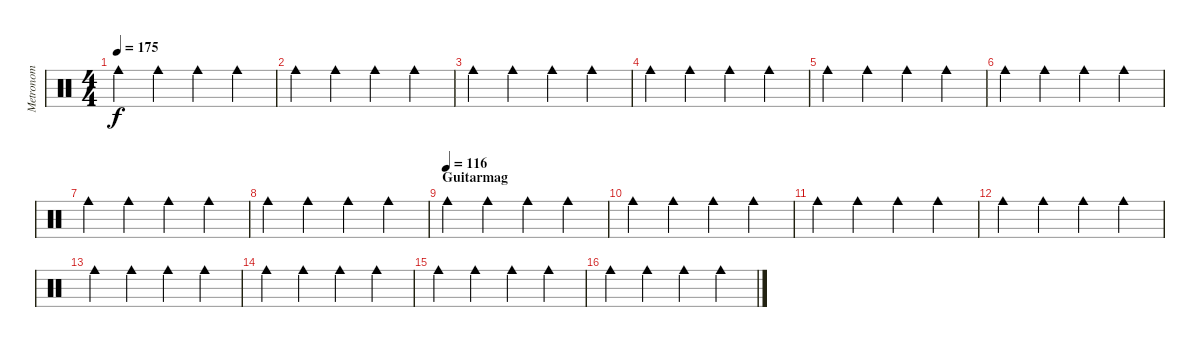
\track ("Metronom" "Metronom") {instrument percussion}
\staff {score}
\articulation defaults
\ts (4 4)
\tempo 175
\clef neutral
\ks c "Cowbell medium (hit)".4{dy f} "Cowbell medium (hit)".4 "Cowbell medium (hit)".4 "Cowbell medium (hit)".4
|
"Cowbell medium (hit)".4 "Cowbell medium (hit)".4 "Cowbell medium (hit)".4 "Cowbell medium (hit)".4 |
"Cowbell medium (hit)".4 "Cowbell medium (hit)".4 "Cowbell medium (hit)".4 "Cowbell medium (hit)".4 |
"Cowbell medium (hit)".4 "Cowbell medium (hit)".4 "Cowbell medium (hit)".4 "Cowbell medium (hit)".4 |
"Cowbell medium (hit)".4 "Cowbell medium (hit)".4 "Cowbell medium (hit)".4 "Cowbell medium (hit)".4 |
"Cowbell medium (hit)".4 "Cowbell medium (hit)".4 "Cowbell medium (hit)".4 "Cowbell medium (hit)".4 |
"Cowbell medium (hit)".4 "Cowbell medium (hit)".4 "Cowbell medium (hit)".4 "Cowbell medium (hit)".4 |
"Cowbell medium (hit)".4 "Cowbell medium (hit)".4 "Cowbell medium (hit)".4 "Cowbell medium (hit)".4 |
\section ("" "Guitarmag")
\tempo (116)
"Cowbell medium (hit)".4 "Cowbell medium (hit)".4 "Cowbell medium (hit)".4 "Cowbell medium (hit)".4 |
"Cowbell medium (hit)".4 "Cowbell medium (hit)".4 "Cowbell medium (hit)".4 "Cowbell medium (hit)".4 |
"Cowbell medium (hit)".4 "Cowbell medium (hit)".4 "Cowbell medium (hit)".4 "Cowbell medium (hit)".4 |
"Cowbell medium (hit)".4 "Cowbell medium (hit)".4 "Cowbell medium (hit)".4 "Cowbell medium (hit)".4 |
"Cowbell medium (hit)".4 "Cowbell medium (hit)".4 "Cowbell medium (hit)".4 "Cowbell medium (hit)".4 |
"Cowbell medium (hit)".4 "Cowbell medium (hit)".4 "Cowbell medium (hit)".4 "Cowbell medium (hit)".4 |
"Cowbell medium (hit)".4 "Cowbell medium (hit)".4 "Cowbell medium (hit)".4 "Cowbell medium (hit)".4 |
"Cowbell medium (hit)".4 "Cowbell medium (hit)".4 "Cowbell medium (hit)".4 "Cowbell medium (hit)".4
